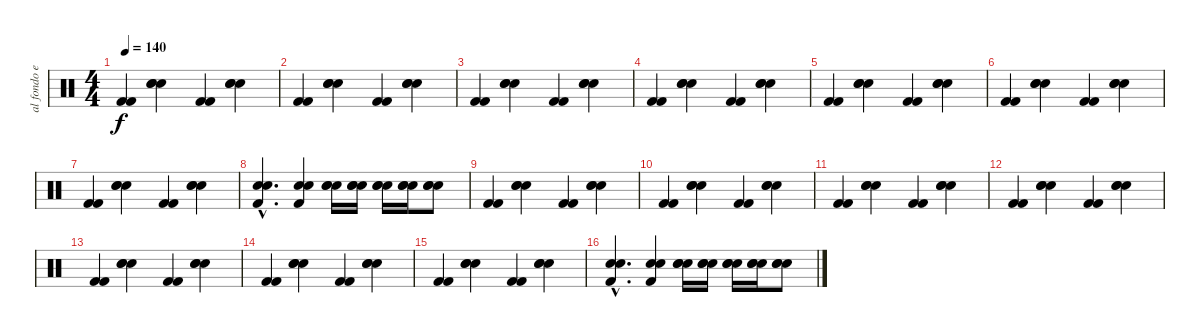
\track ("al fondo en la bateria Mr Pedro Andreu" "al fondo e") {instrument percussion}
\staff {score}
\articulation defaults
\ts (4 4)
\tempo 140
\clef neutral
\ks c
("Kick (hit) 2" "Kick (hit) 2").4{dy f} ("Snare (hit) 2" "Snare (hit) 2" "Snare (hit) 2").4 ("Kick (hit) 2" "Kick (hit) 2").4 ("Snare (hit) 2" "Snare (hit) 2" "Snare (hit) 2").4 |
("Kick (hit) 2" "Kick (hit) 2").4 ("Snare (hit) 2" "Snare (hit) 2" "Snare (hit) 2").4 ("Kick (hit) 2" "Kick (hit) 2").4 ("Snare (hit) 2" "Snare (hit) 2" "Snare (hit) 2").4 |
("Kick (hit) 2" "Kick (hit) 2").4 ("Snare (hit) 2" "Snare (hit) 2" "Snare (hit) 2").4 ("Kick (hit) 2" "Kick (hit) 2").4 ("Snare (hit) 2" "Snare (hit) 2" "Snare (hit) 2").4 |
("Kick (hit) 2" "Kick (hit) 2").4 ("Snare (hit) 2" "Snare (hit) 2" "Snare (hit) 2").4 ("Kick (hit) 2" "Kick (hit) 2").4 ("Snare (hit) 2" "Snare (hit) 2" "Snare (hit) 2").4 |
("Kick (hit) 2" "Kick (hit) 2").4 ("Snare (hit) 2" "Snare (hit) 2" "Snare (hit) 2").4 ("Kick (hit) 2" "Kick (hit) 2").4 ("Snare (hit) 2" "Snare (hit) 2" "Snare (hit) 2").4 |
("Kick (hit) 2" "Kick (hit) 2").4 ("Snare (hit) 2" "Snare (hit) 2" "Snare (hit) 2").4 ("Kick (hit) 2" "Kick (hit) 2").4 ("Snare (hit) 2" "Snare (hit) 2" "Snare (hit) 2").4 |
("Kick (hit) 2" "Kick (hit) 2").4 ("Snare (hit) 2" "Snare (hit) 2" "Snare (hit) 2").4 ("Kick (hit) 2" "Kick (hit) 2").4 ("Snare (hit) 2" "Snare (hit) 2" "Snare (hit) 2").4 |
("Snare (hit) 2"{hac} "Snare (hit) 2"{hac} "Kick (hit) 2"{hac}).4{d} ("Snare (hit) 2" "Snare (hit) 2" "Kick (hit) 2").4 ("Snare (hit) 2" "Snare (hit) 2" "Snare (hit) 2").16 ("Snare (hit) 2" "Snare (hit) 2" "Snare (hit) 2").16 ("Snare (hit) 2" "Snare (hit) 2" "Snare (hit) 2").16 ("Snare (hit) 2" "Snare (hit) 2" "Snare (hit) 2").16 ("Snare (hit) 2" "Snare (hit) 2" "Snare (hit) 2").8 |
("Kick (hit) 2" "Kick (hit) 2").4 ("Snare (hit) 2" "Snare (hit) 2" "Snare (hit) 2").4 ("Kick (hit) 2" "Kick (hit) 2").4 ("Snare (hit) 2" "Snare (hit) 2" "Snare (hit) 2").4 |
("Kick (hit) 2" "Kick (hit) 2").4 ("Snare (hit) 2" "Snare (hit) 2" "Snare (hit) 2").4 ("Kick (hit) 2" "Kick (hit) 2").4 ("Snare (hit) 2" "Snare (hit) 2" "Snare (hit) 2").4 |
("Kick (hit) 2" "Kick (hit) 2").4 ("Snare (hit) 2" "Snare (hit) 2" "Snare (hit) 2").4 ("Kick (hit) 2" "Kick (hit) 2").4 ("Snare (hit) 2" "Snare (hit) 2" "Snare (hit) 2").4 |
("Kick (hit) 2" "Kick (hit) 2").4 ("Snare (hit) 2" "Snare (hit) 2" "Snare (hit) 2").4 ("Kick (hit) 2" "Kick (hit) 2").4 ("Snare (hit) 2" "Snare (hit) 2" "Snare (hit) 2").4 |
("Kick (hit) 2" "Kick (hit) 2").4 ("Snare (hit) 2" "Snare (hit) 2" "Snare (hit) 2").4 ("Kick (hit) 2" "Kick (hit) 2").4 ("Snare (hit) 2" "Snare (hit) 2" "Snare (hit) 2").4 |
("Kick (hit) 2" "Kick (hit) 2").4 ("Snare (hit) 2" "Snare (hit) 2" "Snare (hit) 2").4 ("Kick (hit) 2" "Kick (hit) 2").4 ("Snare (hit) 2" "Snare (hit) 2" "Snare (hit) 2").4 |
("Kick (hit) 2" "Kick (hit) 2").4 ("Snare (hit) 2" "Snare (hit) 2" "Snare (hit) 2").4 ("Kick (hit) 2" "Kick (hit) 2").4 ("Snare (hit) 2" "Snare (hit) 2" "Snare (hit) 2").4 |
("Snare (hit) 2"{hac} "Snare (hit) 2"{hac} "Kick (hit) 2"{hac}).4{d} ("Snare (hit) 2" "Snare (hit) 2" "Kick (hit) 2").4 ("Snare (hit) 2" "Snare (hit) 2" "Snare (hit) 2").16 ("Snare (hit) 2" "Snare (hit) 2" "Snare (hit) 2").16 ("Snare (hit) 2" "Snare (hit) 2" "Snare (hit) 2").16 ("Snare (hit) 2" "Snare (hit) 2" "Snare (hit) 2").16 ("Snare (hit) 2" "Snare (hit) 2" "Snare (hit) 2").8
